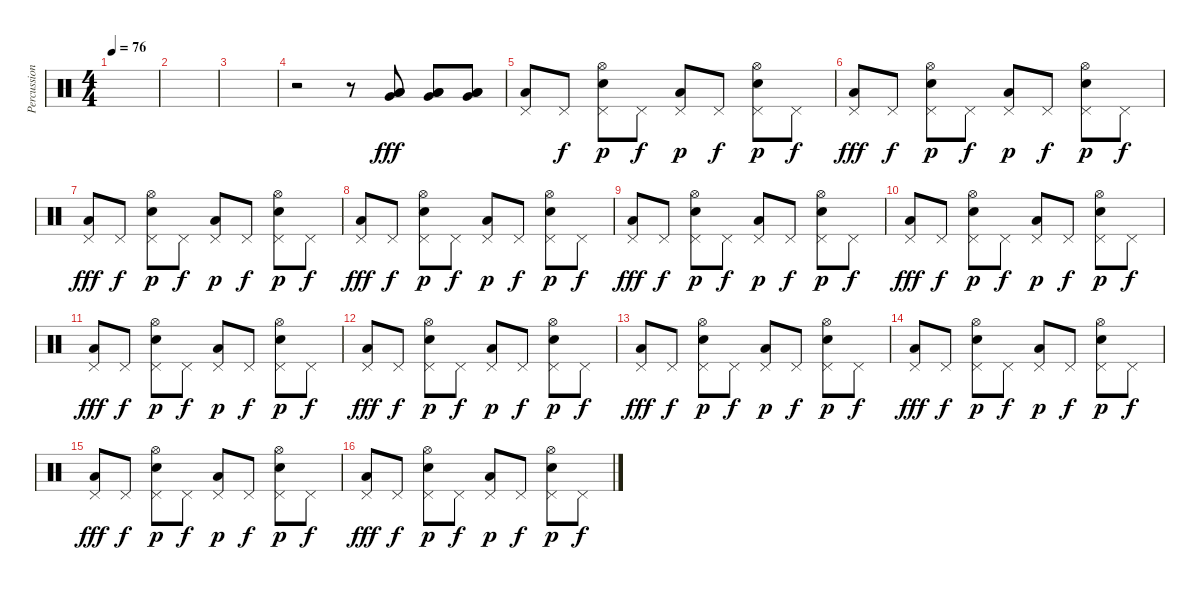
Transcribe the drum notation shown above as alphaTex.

\track ("Percussion" "Percussion") {instrument percussion}
\staff {score}
\articulation defaults
\ts (4 4)
\tempo 76
\clef neutral
\ks c
|
|
|
r.2 r.8 ("Very Low Tom (hit)" "Low Floor Tom (hit)" "Low Tom (hit)").8{dy fff} ("Very Low Tom (hit)" "Low Floor Tom (hit)" "Low Tom (hit)").8 ("Very Low Tom (hit)" "Low Floor Tom (hit)" "Low Tom (hit)").8 |
("Low Floor Tom (hit)" "Pedal Hi-Hat (hit)").8 "Pedal Hi-Hat (hit)".8{dy f} ("Electric Snare (hit)" "Pedal Hi-Hat (hit)" "Hi-Hat (open)").8{dy p} "Pedal Hi-Hat (hit)".8{dy f} ("Low Floor Tom (hit)" "Pedal Hi-Hat (hit)").8{dy p} "Pedal Hi-Hat (hit)".8{dy f} ("Electric Snare (hit)" "Pedal Hi-Hat (hit)" "Hi-Hat (open)").8{dy p} "Pedal Hi-Hat (hit)".8{dy f} |
("Low Floor Tom (hit)" "Pedal Hi-Hat (hit)").8{dy fff} "Pedal Hi-Hat (hit)".8{dy f} ("Electric Snare (hit)" "Pedal Hi-Hat (hit)" "Hi-Hat (open)").8{dy p} "Pedal Hi-Hat (hit)".8{dy f} ("Low Floor Tom (hit)" "Pedal Hi-Hat (hit)").8{dy p} "Pedal Hi-Hat (hit)".8{dy f} ("Electric Snare (hit)" "Pedal Hi-Hat (hit)" "Hi-Hat (open)").8{dy p} "Pedal Hi-Hat (hit)".8{dy f} |
("Low Floor Tom (hit)" "Pedal Hi-Hat (hit)").8{dy fff} "Pedal Hi-Hat (hit)".8{dy f} ("Electric Snare (hit)" "Pedal Hi-Hat (hit)" "Hi-Hat (open)").8{dy p} "Pedal Hi-Hat (hit)".8{dy f} ("Low Floor Tom (hit)" "Pedal Hi-Hat (hit)").8{dy p} "Pedal Hi-Hat (hit)".8{dy f} ("Electric Snare (hit)" "Pedal Hi-Hat (hit)" "Hi-Hat (open)").8{dy p} "Pedal Hi-Hat (hit)".8{dy f} |
("Low Floor Tom (hit)" "Pedal Hi-Hat (hit)").8{dy fff} "Pedal Hi-Hat (hit)".8{dy f} ("Electric Snare (hit)" "Pedal Hi-Hat (hit)" "Hi-Hat (open)").8{dy p} "Pedal Hi-Hat (hit)".8{dy f} ("Low Floor Tom (hit)" "Pedal Hi-Hat (hit)").8{dy p} "Pedal Hi-Hat (hit)".8{dy f} ("Electric Snare (hit)" "Pedal Hi-Hat (hit)" "Hi-Hat (open)").8{dy p} "Pedal Hi-Hat (hit)".8{dy f} |
("Low Floor Tom (hit)" "Pedal Hi-Hat (hit)").8{dy fff} "Pedal Hi-Hat (hit)".8{dy f} ("Electric Snare (hit)" "Pedal Hi-Hat (hit)" "Hi-Hat (open)").8{dy p} "Pedal Hi-Hat (hit)".8{dy f} ("Low Floor Tom (hit)" "Pedal Hi-Hat (hit)").8{dy p} "Pedal Hi-Hat (hit)".8{dy f} ("Electric Snare (hit)" "Pedal Hi-Hat (hit)" "Hi-Hat (open)").8{dy p} "Pedal Hi-Hat (hit)".8{dy f} |
("Low Floor Tom (hit)" "Pedal Hi-Hat (hit)").8{dy fff} "Pedal Hi-Hat (hit)".8{dy f} ("Electric Snare (hit)" "Pedal Hi-Hat (hit)" "Hi-Hat (open)").8{dy p} "Pedal Hi-Hat (hit)".8{dy f} ("Low Floor Tom (hit)" "Pedal Hi-Hat (hit)").8{dy p} "Pedal Hi-Hat (hit)".8{dy f} ("Electric Snare (hit)" "Pedal Hi-Hat (hit)" "Hi-Hat (open)").8{dy p} "Pedal Hi-Hat (hit)".8{dy f} |
("Low Floor Tom (hit)" "Pedal Hi-Hat (hit)").8{dy fff} "Pedal Hi-Hat (hit)".8{dy f} ("Electric Snare (hit)" "Pedal Hi-Hat (hit)" "Hi-Hat (open)").8{dy p} "Pedal Hi-Hat (hit)".8{dy f} ("Low Floor Tom (hit)" "Pedal Hi-Hat (hit)").8{dy p} "Pedal Hi-Hat (hit)".8{dy f} ("Electric Snare (hit)" "Pedal Hi-Hat (hit)" "Hi-Hat (open)").8{dy p} "Pedal Hi-Hat (hit)".8{dy f} |
("Low Floor Tom (hit)" "Pedal Hi-Hat (hit)").8{dy fff} "Pedal Hi-Hat (hit)".8{dy f} ("Electric Snare (hit)" "Pedal Hi-Hat (hit)" "Hi-Hat (open)").8{dy p} "Pedal Hi-Hat (hit)".8{dy f} ("Low Floor Tom (hit)" "Pedal Hi-Hat (hit)").8{dy p} "Pedal Hi-Hat (hit)".8{dy f} ("Electric Snare (hit)" "Pedal Hi-Hat (hit)" "Hi-Hat (open)").8{dy p} "Pedal Hi-Hat (hit)".8{dy f} |
("Low Floor Tom (hit)" "Pedal Hi-Hat (hit)").8{dy fff} "Pedal Hi-Hat (hit)".8{dy f} ("Electric Snare (hit)" "Pedal Hi-Hat (hit)" "Hi-Hat (open)").8{dy p} "Pedal Hi-Hat (hit)".8{dy f} ("Low Floor Tom (hit)" "Pedal Hi-Hat (hit)").8{dy p} "Pedal Hi-Hat (hit)".8{dy f} ("Electric Snare (hit)" "Pedal Hi-Hat (hit)" "Hi-Hat (open)").8{dy p} "Pedal Hi-Hat (hit)".8{dy f} |
("Low Floor Tom (hit)" "Pedal Hi-Hat (hit)").8{dy fff} "Pedal Hi-Hat (hit)".8{dy f} ("Electric Snare (hit)" "Pedal Hi-Hat (hit)" "Hi-Hat (open)").8{dy p} "Pedal Hi-Hat (hit)".8{dy f} ("Low Floor Tom (hit)" "Pedal Hi-Hat (hit)").8{dy p} "Pedal Hi-Hat (hit)".8{dy f} ("Electric Snare (hit)" "Pedal Hi-Hat (hit)" "Hi-Hat (open)").8{dy p} "Pedal Hi-Hat (hit)".8{dy f} |
("Low Floor Tom (hit)" "Pedal Hi-Hat (hit)").8{dy fff} "Pedal Hi-Hat (hit)".8{dy f} ("Electric Snare (hit)" "Pedal Hi-Hat (hit)" "Hi-Hat (open)").8{dy p} "Pedal Hi-Hat (hit)".8{dy f} ("Low Floor Tom (hit)" "Pedal Hi-Hat (hit)").8{dy p} "Pedal Hi-Hat (hit)".8{dy f} ("Electric Snare (hit)" "Pedal Hi-Hat (hit)" "Hi-Hat (open)").8{dy p} "Pedal Hi-Hat (hit)".8{dy f} |
("Low Floor Tom (hit)" "Pedal Hi-Hat (hit)").8{dy fff} "Pedal Hi-Hat (hit)".8{dy f} ("Electric Snare (hit)" "Pedal Hi-Hat (hit)" "Hi-Hat (open)").8{dy p} "Pedal Hi-Hat (hit)".8{dy f} ("Low Floor Tom (hit)" "Pedal Hi-Hat (hit)").8{dy p} "Pedal Hi-Hat (hit)".8{dy f} ("Electric Snare (hit)" "Pedal Hi-Hat (hit)" "Hi-Hat (open)").8{dy p} "Pedal Hi-Hat (hit)".8{dy f}
